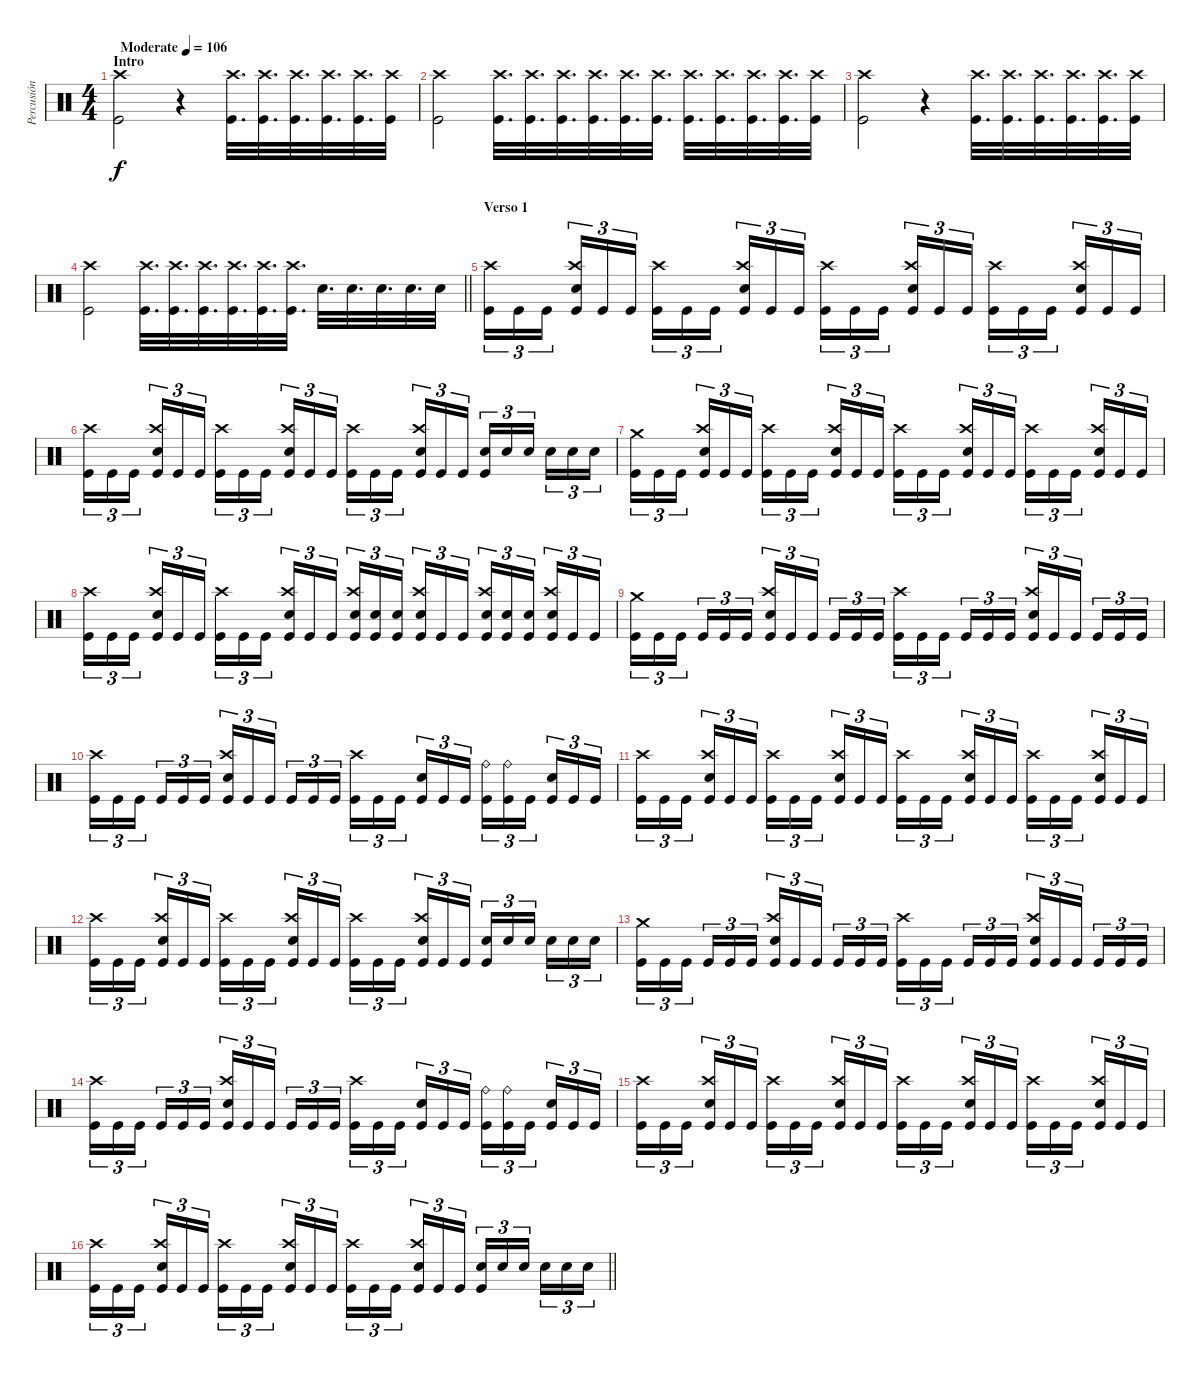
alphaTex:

\track ("Percusión" "Percusión") {instrument percussion}
\staff
\articulation defaults
\ts (4 4)
\section ("" "Intro")
\tempo (106 "Moderate")
\clef neutral
\ks c
("Kick (hit)" "Crash high (hit)").2{dy f} r.4 ("Kick (hit)" "Crash high (hit)").32{d} ("Kick (hit)" "Crash high (hit)").32{d} ("Kick (hit)" "Crash high (hit)").32{d} ("Kick (hit)" "Crash high (hit)").32{d} ("Kick (hit)" "Crash high (hit)").32{d} ("Kick (hit)" "Crash high (hit)").32 |
("Kick (hit)" "Crash high (hit)").2 ("Kick (hit)" "Crash high (hit)").32{d} ("Kick (hit)" "Crash high (hit)").32{d} ("Kick (hit)" "Crash high (hit)").32{d} ("Kick (hit)" "Crash high (hit)").32{d} ("Kick (hit)" "Crash high (hit)").32{d} ("Kick (hit)" "Crash high (hit)").32{d} ("Kick (hit)" "Crash high (hit)").32{d} ("Kick (hit)" "Crash high (hit)").32{d} ("Kick (hit)" "Crash high (hit)").32{d} ("Kick (hit)" "Crash high (hit)").32{d} ("Kick (hit)" "Crash high (hit)").32 |
("Kick (hit)" "Crash high (hit)").2 r.4 ("Kick (hit)" "Crash high (hit)").32{d} ("Kick (hit)" "Crash high (hit)").32{d} ("Kick (hit)" "Crash high (hit)").32{d} ("Kick (hit)" "Crash high (hit)").32{d} ("Kick (hit)" "Crash high (hit)").32{d} ("Kick (hit)" "Crash high (hit)").32 |
\barLineRight lightlight
("Kick (hit)" "Crash high (hit)").2 ("Kick (hit)" "Crash high (hit)").32{d} ("Kick (hit)" "Crash high (hit)").32{d} ("Kick (hit)" "Crash high (hit)").32{d} ("Kick (hit)" "Crash high (hit)").32{d} ("Kick (hit)" "Crash high (hit)").32{d} ("Kick (hit)" "Crash high (hit)").32{d} "Electric Snare (hit)".32{d} "Electric Snare (hit)".32{d} "Electric Snare (hit)".32{d} "Electric Snare (hit)".32{d} "Electric Snare (hit)".32 |
\section ("" "Verso 1")
("Kick (hit)" "Crash high (hit)").16{tu (3 2)} "Kick (hit)".16{tu (3 2)} "Kick (hit)".16{tu (3 2) beam splitsecondary} ("Kick (hit)" "Crash high (hit)" "Electric Snare (hit)").16{tu (3 2)} "Kick (hit)".16{tu (3 2)} "Kick (hit)".16{tu (3 2)} ("Kick (hit)" "Crash high (hit)").16{tu (3 2)} "Kick (hit)".16{tu (3 2)} "Kick (hit)".16{tu (3 2) beam splitsecondary} ("Kick (hit)" "Crash high (hit)" "Electric Snare (hit)").16{tu (3 2)} "Kick (hit)".16{tu (3 2)} "Kick (hit)".16{tu (3 2)} ("Kick (hit)" "Crash high (hit)").16{tu (3 2)} "Kick (hit)".16{tu (3 2)} "Kick (hit)".16{tu (3 2) beam splitsecondary} ("Kick (hit)" "Crash high (hit)" "Electric Snare (hit)").16{tu (3 2)} "Kick (hit)".16{tu (3 2)} "Kick (hit)".16{tu (3 2)} ("Kick (hit)" "Crash high (hit)").16{tu (3 2)} "Kick (hit)".16{tu (3 2)} "Kick (hit)".16{tu (3 2) beam splitsecondary} ("Kick (hit)" "Crash high (hit)" "Electric Snare (hit)").16{tu (3 2)} "Kick (hit)".16{tu (3 2)} "Kick (hit)".16{tu (3 2)} |
("Kick (hit)" "Crash high (hit)").16{tu (3 2)} "Kick (hit)".16{tu (3 2)} "Kick (hit)".16{tu (3 2) beam splitsecondary} ("Kick (hit)" "Crash high (hit)" "Electric Snare (hit)").16{tu (3 2)} "Kick (hit)".16{tu (3 2)} "Kick (hit)".16{tu (3 2)} ("Kick (hit)" "Crash high (hit)").16{tu (3 2)} "Kick (hit)".16{tu (3 2)} "Kick (hit)".16{tu (3 2) beam splitsecondary} ("Kick (hit)" "Crash high (hit)" "Electric Snare (hit)").16{tu (3 2)} "Kick (hit)".16{tu (3 2)} "Kick (hit)".16{tu (3 2)} ("Kick (hit)" "Crash high (hit)").16{tu (3 2)} "Kick (hit)".16{tu (3 2)} "Kick (hit)".16{tu (3 2) beam splitsecondary} ("Kick (hit)" "Crash high (hit)" "Electric Snare (hit)").16{tu (3 2)} "Kick (hit)".16{tu (3 2)} "Kick (hit)".16{tu (3 2)} ("Kick (hit)" "Electric Snare (hit)").16{tu (3 2)} "Electric Snare (hit)".16{tu (3 2)} "Electric Snare (hit)".16{tu (3 2) beam splitsecondary} "Electric Snare (hit)".16{tu (3 2)} "Electric Snare (hit)".16{tu (3 2)} "Electric Snare (hit)".16{tu (3 2)} |
("Kick (hit)" "Crash medium (hit)").16{tu (3 2)} "Kick (hit)".16{tu (3 2)} "Kick (hit)".16{tu (3 2) beam splitsecondary} ("Kick (hit)" "Crash high (hit)" "Electric Snare (hit)").16{tu (3 2)} "Kick (hit)".16{tu (3 2)} "Kick (hit)".16{tu (3 2)} ("Kick (hit)" "Crash high (hit)").16{tu (3 2)} "Kick (hit)".16{tu (3 2)} "Kick (hit)".16{tu (3 2) beam splitsecondary} ("Kick (hit)" "Crash high (hit)" "Electric Snare (hit)").16{tu (3 2)} "Kick (hit)".16{tu (3 2)} "Kick (hit)".16{tu (3 2)} ("Kick (hit)" "Crash high (hit)").16{tu (3 2)} "Kick (hit)".16{tu (3 2)} "Kick (hit)".16{tu (3 2) beam splitsecondary} ("Kick (hit)" "Crash high (hit)" "Electric Snare (hit)").16{tu (3 2)} "Kick (hit)".16{tu (3 2)} "Kick (hit)".16{tu (3 2)} ("Kick (hit)" "Crash high (hit)").16{tu (3 2)} "Kick (hit)".16{tu (3 2)} "Kick (hit)".16{tu (3 2) beam splitsecondary} ("Kick (hit)" "Crash high (hit)" "Electric Snare (hit)").16{tu (3 2)} "Kick (hit)".16{tu (3 2)} "Kick (hit)".16{tu (3 2)} |
("Kick (hit)" "Crash high (hit)").16{tu (3 2)} "Kick (hit)".16{tu (3 2)} "Kick (hit)".16{tu (3 2) beam splitsecondary} ("Kick (hit)" "Crash high (hit)" "Electric Snare (hit)").16{tu (3 2)} "Kick (hit)".16{tu (3 2)} "Kick (hit)".16{tu (3 2)} ("Kick (hit)" "Crash high (hit)").16{tu (3 2)} "Kick (hit)".16{tu (3 2)} "Kick (hit)".16{tu (3 2) beam splitsecondary} ("Kick (hit)" "Crash high (hit)" "Electric Snare (hit)").16{tu (3 2)} "Kick (hit)".16{tu (3 2)} "Kick (hit)".16{tu (3 2)} ("Kick (hit)" "Crash high (hit)" "Electric Snare (hit)").16{tu (3 2)} ("Kick (hit)" "Electric Snare (hit)").16{tu (3 2)} ("Kick (hit)" "Electric Snare (hit)").16{tu (3 2) beam splitsecondary} ("Kick (hit)" "Crash high (hit)" "Electric Snare (hit)").16{tu (3 2)} "Kick (hit)".16{tu (3 2)} "Kick (hit)".16{tu (3 2)} ("Kick (hit)" "Crash high (hit)" "Electric Snare (hit)").16{tu (3 2)} ("Kick (hit)" "Electric Snare (hit)").16{tu (3 2)} ("Kick (hit)" "Electric Snare (hit)").16{tu (3 2) beam splitsecondary} ("Kick (hit)" "Crash high (hit)" "Electric Snare (hit)").16{tu (3 2)} "Kick (hit)".16{tu (3 2)} "Kick (hit)".16{tu (3 2)} |
("Kick (hit)" "Crash medium (hit)").16{tu (3 2)} "Kick (hit)".16{tu (3 2)} "Kick (hit)".16{tu (3 2) beam splitsecondary} "Kick (hit)".16{tu (3 2)} "Kick (hit)".16{tu (3 2)} "Kick (hit)".16{tu (3 2)} ("Kick (hit)" "Crash high (hit)" "Electric Snare (hit)").16{tu (3 2)} "Kick (hit)".16{tu (3 2)} "Kick (hit)".16{tu (3 2) beam splitsecondary} "Kick (hit)".16{tu (3 2)} "Kick (hit)".16{tu (3 2)} "Kick (hit)".16{tu (3 2)} ("Kick (hit)" "Crash high (hit)").16{tu (3 2)} "Kick (hit)".16{tu (3 2)} "Kick (hit)".16{tu (3 2) beam splitsecondary} "Kick (hit)".16{tu (3 2)} "Kick (hit)".16{tu (3 2)} "Kick (hit)".16{tu (3 2)} ("Kick (hit)" "Crash high (hit)" "Electric Snare (hit)").16{tu (3 2)} "Kick (hit)".16{tu (3 2)} "Kick (hit)".16{tu (3 2) beam splitsecondary} "Kick (hit)".16{tu (3 2)} "Kick (hit)".16{tu (3 2)} "Kick (hit)".16{tu (3 2)} |
("Kick (hit)" "Crash high (hit)").16{tu (3 2)} "Kick (hit)".16{tu (3 2)} "Kick (hit)".16{tu (3 2) beam splitsecondary} "Kick (hit)".16{tu (3 2)} "Kick (hit)".16{tu (3 2)} "Kick (hit)".16{tu (3 2)} ("Kick (hit)" "Crash high (hit)" "Electric Snare (hit)").16{tu (3 2)} "Kick (hit)".16{tu (3 2)} "Kick (hit)".16{tu (3 2) beam splitsecondary} "Kick (hit)".16{tu (3 2)} "Kick (hit)".16{tu (3 2)} "Kick (hit)".16{tu (3 2)} ("Kick (hit)" "Crash high (hit)").16{tu (3 2)} "Kick (hit)".16{tu (3 2)} "Kick (hit)".16{tu (3 2) beam splitsecondary} ("Kick (hit)" "Electric Snare (hit)").16{tu (3 2)} "Kick (hit)".16{tu (3 2)} "Kick (hit)".16{tu (3 2)} ("Kick (hit)" "Ride (bell)").16{tu (3 2)} ("Kick (hit)" "Ride (bell)").16{tu (3 2)} "Kick (hit)".16{tu (3 2) beam splitsecondary} ("Kick (hit)" "Electric Snare (hit)").16{tu (3 2)} "Kick (hit)".16{tu (3 2)} "Kick (hit)".16{tu (3 2)} |
("Kick (hit)" "Crash high (hit)").16{tu (3 2)} "Kick (hit)".16{tu (3 2)} "Kick (hit)".16{tu (3 2) beam splitsecondary} ("Kick (hit)" "Crash high (hit)" "Electric Snare (hit)").16{tu (3 2)} "Kick (hit)".16{tu (3 2)} "Kick (hit)".16{tu (3 2)} ("Kick (hit)" "Crash high (hit)").16{tu (3 2)} "Kick (hit)".16{tu (3 2)} "Kick (hit)".16{tu (3 2) beam splitsecondary} ("Kick (hit)" "Crash high (hit)" "Electric Snare (hit)").16{tu (3 2)} "Kick (hit)".16{tu (3 2)} "Kick (hit)".16{tu (3 2)} ("Kick (hit)" "Crash high (hit)").16{tu (3 2)} "Kick (hit)".16{tu (3 2)} "Kick (hit)".16{tu (3 2) beam splitsecondary} ("Kick (hit)" "Crash high (hit)" "Electric Snare (hit)").16{tu (3 2)} "Kick (hit)".16{tu (3 2)} "Kick (hit)".16{tu (3 2)} ("Kick (hit)" "Crash high (hit)").16{tu (3 2)} "Kick (hit)".16{tu (3 2)} "Kick (hit)".16{tu (3 2) beam splitsecondary} ("Kick (hit)" "Crash high (hit)" "Electric Snare (hit)").16{tu (3 2)} "Kick (hit)".16{tu (3 2)} "Kick (hit)".16{tu (3 2)} |
("Kick (hit)" "Crash high (hit)").16{tu (3 2)} "Kick (hit)".16{tu (3 2)} "Kick (hit)".16{tu (3 2) beam splitsecondary} ("Kick (hit)" "Crash high (hit)" "Electric Snare (hit)").16{tu (3 2)} "Kick (hit)".16{tu (3 2)} "Kick (hit)".16{tu (3 2)} ("Kick (hit)" "Crash high (hit)").16{tu (3 2)} "Kick (hit)".16{tu (3 2)} "Kick (hit)".16{tu (3 2) beam splitsecondary} ("Kick (hit)" "Crash high (hit)" "Electric Snare (hit)").16{tu (3 2)} "Kick (hit)".16{tu (3 2)} "Kick (hit)".16{tu (3 2)} ("Kick (hit)" "Crash high (hit)").16{tu (3 2)} "Kick (hit)".16{tu (3 2)} "Kick (hit)".16{tu (3 2) beam splitsecondary} ("Kick (hit)" "Crash high (hit)" "Electric Snare (hit)").16{tu (3 2)} "Kick (hit)".16{tu (3 2)} "Kick (hit)".16{tu (3 2)} ("Kick (hit)" "Electric Snare (hit)").16{tu (3 2)} "Electric Snare (hit)".16{tu (3 2)} "Electric Snare (hit)".16{tu (3 2) beam splitsecondary} "Electric Snare (hit)".16{tu (3 2)} "Electric Snare (hit)".16{tu (3 2)} "Electric Snare (hit)".16{tu (3 2)} |
("Kick (hit)" "Crash medium (hit)").16{tu (3 2)} "Kick (hit)".16{tu (3 2)} "Kick (hit)".16{tu (3 2) beam splitsecondary} "Kick (hit)".16{tu (3 2)} "Kick (hit)".16{tu (3 2)} "Kick (hit)".16{tu (3 2)} ("Kick (hit)" "Crash high (hit)" "Electric Snare (hit)").16{tu (3 2)} "Kick (hit)".16{tu (3 2)} "Kick (hit)".16{tu (3 2) beam splitsecondary} "Kick (hit)".16{tu (3 2)} "Kick (hit)".16{tu (3 2)} "Kick (hit)".16{tu (3 2)} ("Kick (hit)" "Crash high (hit)").16{tu (3 2)} "Kick (hit)".16{tu (3 2)} "Kick (hit)".16{tu (3 2) beam splitsecondary} "Kick (hit)".16{tu (3 2)} "Kick (hit)".16{tu (3 2)} "Kick (hit)".16{tu (3 2)} ("Kick (hit)" "Crash high (hit)" "Electric Snare (hit)").16{tu (3 2)} "Kick (hit)".16{tu (3 2)} "Kick (hit)".16{tu (3 2) beam splitsecondary} "Kick (hit)".16{tu (3 2)} "Kick (hit)".16{tu (3 2)} "Kick (hit)".16{tu (3 2)} |
("Kick (hit)" "Crash high (hit)").16{tu (3 2)} "Kick (hit)".16{tu (3 2)} "Kick (hit)".16{tu (3 2) beam splitsecondary} "Kick (hit)".16{tu (3 2)} "Kick (hit)".16{tu (3 2)} "Kick (hit)".16{tu (3 2)} ("Kick (hit)" "Crash high (hit)" "Electric Snare (hit)").16{tu (3 2)} "Kick (hit)".16{tu (3 2)} "Kick (hit)".16{tu (3 2) beam splitsecondary} "Kick (hit)".16{tu (3 2)} "Kick (hit)".16{tu (3 2)} "Kick (hit)".16{tu (3 2)} ("Kick (hit)" "Crash high (hit)").16{tu (3 2)} "Kick (hit)".16{tu (3 2)} "Kick (hit)".16{tu (3 2) beam splitsecondary} ("Kick (hit)" "Electric Snare (hit)").16{tu (3 2)} "Kick (hit)".16{tu (3 2)} "Kick (hit)".16{tu (3 2)} ("Kick (hit)" "Ride (bell)").16{tu (3 2)} ("Kick (hit)" "Ride (bell)").16{tu (3 2)} "Kick (hit)".16{tu (3 2) beam splitsecondary} ("Kick (hit)" "Electric Snare (hit)").16{tu (3 2)} "Kick (hit)".16{tu (3 2)} "Kick (hit)".16{tu (3 2)} |
("Kick (hit)" "Crash high (hit)").16{tu (3 2)} "Kick (hit)".16{tu (3 2)} "Kick (hit)".16{tu (3 2) beam splitsecondary} ("Kick (hit)" "Crash high (hit)" "Electric Snare (hit)").16{tu (3 2)} "Kick (hit)".16{tu (3 2)} "Kick (hit)".16{tu (3 2)} ("Kick (hit)" "Crash high (hit)").16{tu (3 2)} "Kick (hit)".16{tu (3 2)} "Kick (hit)".16{tu (3 2) beam splitsecondary} ("Kick (hit)" "Crash high (hit)" "Electric Snare (hit)").16{tu (3 2)} "Kick (hit)".16{tu (3 2)} "Kick (hit)".16{tu (3 2)} ("Kick (hit)" "Crash high (hit)").16{tu (3 2)} "Kick (hit)".16{tu (3 2)} "Kick (hit)".16{tu (3 2) beam splitsecondary} ("Kick (hit)" "Crash high (hit)" "Electric Snare (hit)").16{tu (3 2)} "Kick (hit)".16{tu (3 2)} "Kick (hit)".16{tu (3 2)} ("Kick (hit)" "Crash high (hit)").16{tu (3 2)} "Kick (hit)".16{tu (3 2)} "Kick (hit)".16{tu (3 2) beam splitsecondary} ("Kick (hit)" "Crash high (hit)" "Electric Snare (hit)").16{tu (3 2)} "Kick (hit)".16{tu (3 2)} "Kick (hit)".16{tu (3 2)} |
\barLineRight lightlight
("Kick (hit)" "Crash high (hit)").16{tu (3 2)} "Kick (hit)".16{tu (3 2)} "Kick (hit)".16{tu (3 2) beam splitsecondary} ("Kick (hit)" "Crash high (hit)" "Electric Snare (hit)").16{tu (3 2)} "Kick (hit)".16{tu (3 2)} "Kick (hit)".16{tu (3 2)} ("Kick (hit)" "Crash high (hit)").16{tu (3 2)} "Kick (hit)".16{tu (3 2)} "Kick (hit)".16{tu (3 2) beam splitsecondary} ("Kick (hit)" "Crash high (hit)" "Electric Snare (hit)").16{tu (3 2)} "Kick (hit)".16{tu (3 2)} "Kick (hit)".16{tu (3 2)} ("Kick (hit)" "Crash high (hit)").16{tu (3 2)} "Kick (hit)".16{tu (3 2)} "Kick (hit)".16{tu (3 2) beam splitsecondary} ("Kick (hit)" "Crash high (hit)" "Electric Snare (hit)").16{tu (3 2)} "Kick (hit)".16{tu (3 2)} "Kick (hit)".16{tu (3 2)} ("Kick (hit)" "Electric Snare (hit)").16{tu (3 2)} "Electric Snare (hit)".16{tu (3 2)} "Electric Snare (hit)".16{tu (3 2) beam splitsecondary} "Electric Snare (hit)".16{tu (3 2)} "Electric Snare (hit)".16{tu (3 2)} "Electric Snare (hit)".16{tu (3 2)}
